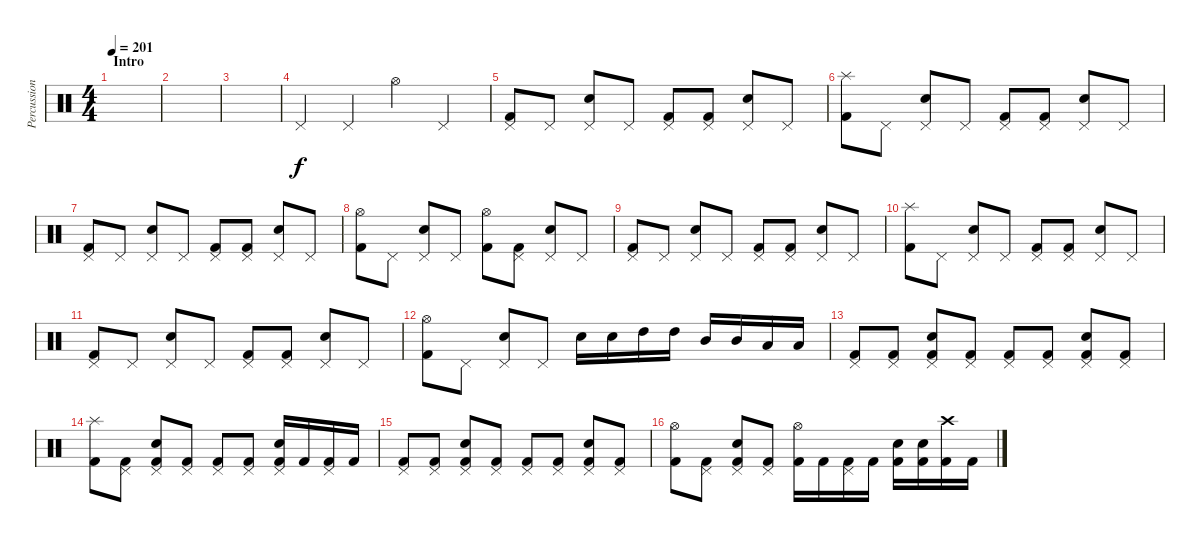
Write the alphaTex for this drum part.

\track ("Percussion" "Percussion") {instrument percussion}
\staff {score}
\articulation defaults
\ts (4 4)
\section ("" "Intro")
\tempo 201
\clef neutral
\ks c
|
|
|
"Pedal Hi-Hat (hit)".4 "Pedal Hi-Hat (hit)".4 "Hi-Hat (open)".4 "Pedal Hi-Hat (hit)".4 |
("Pedal Hi-Hat (hit)" "Kick (hit) 2").8 "Pedal Hi-Hat (hit)".8 ("Pedal Hi-Hat (hit)" "Snare (hit) 2").8 "Pedal Hi-Hat (hit)".8 ("Pedal Hi-Hat (hit)" "Kick (hit) 2").8 ("Pedal Hi-Hat (hit)" "Kick (hit) 2").8 ("Pedal Hi-Hat (hit)" "Snare (hit) 2").8 "Pedal Hi-Hat (hit)".8 |
("Splash (hit)" "Kick (hit) 2").8 "Pedal Hi-Hat (hit)".8 ("Pedal Hi-Hat (hit)" "Snare (hit) 2").8 "Pedal Hi-Hat (hit)".8 ("Pedal Hi-Hat (hit)" "Kick (hit) 2").8 ("Pedal Hi-Hat (hit)" "Kick (hit) 2").8 ("Pedal Hi-Hat (hit)" "Snare (hit) 2").8 "Pedal Hi-Hat (hit)".8 |
("Pedal Hi-Hat (hit)" "Kick (hit) 2").8 "Pedal Hi-Hat (hit)".8 ("Pedal Hi-Hat (hit)" "Snare (hit) 2").8 "Pedal Hi-Hat (hit)".8 ("Pedal Hi-Hat (hit)" "Kick (hit) 2").8 ("Pedal Hi-Hat (hit)" "Kick (hit) 2").8 ("Pedal Hi-Hat (hit)" "Snare (hit) 2").8 "Pedal Hi-Hat (hit)".8 |
("Hi-Hat (open)" "Kick (hit) 2").8 "Pedal Hi-Hat (hit)".8 ("Pedal Hi-Hat (hit)" "Snare (hit) 2").8 "Pedal Hi-Hat (hit)".8 ("Hi-Hat (open)" "Kick (hit) 2").8 ("Pedal Hi-Hat (hit)" "Kick (hit) 2").8 ("Pedal Hi-Hat (hit)" "Snare (hit) 2").8 "Pedal Hi-Hat (hit)".8 |
("Pedal Hi-Hat (hit)" "Kick (hit) 2").8 "Pedal Hi-Hat (hit)".8 ("Pedal Hi-Hat (hit)" "Snare (hit) 2").8 "Pedal Hi-Hat (hit)".8 ("Pedal Hi-Hat (hit)" "Kick (hit) 2").8 ("Pedal Hi-Hat (hit)" "Kick (hit) 2").8 ("Pedal Hi-Hat (hit)" "Snare (hit) 2").8 "Pedal Hi-Hat (hit)".8 |
("Splash (hit)" "Kick (hit) 2").8 "Pedal Hi-Hat (hit)".8 ("Pedal Hi-Hat (hit)" "Snare (hit) 2").8 "Pedal Hi-Hat (hit)".8 ("Pedal Hi-Hat (hit)" "Kick (hit) 2").8 ("Pedal Hi-Hat (hit)" "Kick (hit) 2").8 ("Pedal Hi-Hat (hit)" "Snare (hit) 2").8 "Pedal Hi-Hat (hit)".8 |
("Pedal Hi-Hat (hit)" "Kick (hit) 2").8 "Pedal Hi-Hat (hit)".8 ("Pedal Hi-Hat (hit)" "Snare (hit) 2").8 "Pedal Hi-Hat (hit)".8 ("Pedal Hi-Hat (hit)" "Kick (hit) 2").8 ("Pedal Hi-Hat (hit)" "Kick (hit) 2").8 ("Pedal Hi-Hat (hit)" "Snare (hit) 2").8 "Pedal Hi-Hat (hit)".8 |
("Hi-Hat (open)" "Kick (hit) 2").8 "Pedal Hi-Hat (hit)".8 ("Pedal Hi-Hat (hit)" "Snare (hit) 2").8 "Pedal Hi-Hat (hit)".8 "Snare (hit) 2".16 "Snare (hit) 2".16 "High Tom (hit)".16 "High Tom (hit)".16 "Mid Tom (hit)".16 "Mid Tom (hit)".16 "Low Tom (hit)".16 "Low Tom (hit)".16 |
("Pedal Hi-Hat (hit)" "Kick (hit) 2").8 ("Pedal Hi-Hat (hit)" "Kick (hit) 2").8 ("Pedal Hi-Hat (hit)" "Snare (hit) 2" "Kick (hit) 2").8 ("Pedal Hi-Hat (hit)" "Kick (hit) 2").8 ("Pedal Hi-Hat (hit)" "Kick (hit) 2").8 ("Pedal Hi-Hat (hit)" "Kick (hit) 2").8 ("Pedal Hi-Hat (hit)" "Snare (hit) 2" "Kick (hit) 2").8 ("Pedal Hi-Hat (hit)" "Kick (hit) 2").8 |
("Splash (hit)" "Kick (hit) 2").8 ("Pedal Hi-Hat (hit)" "Kick (hit) 2").8 ("Pedal Hi-Hat (hit)" "Snare (hit) 2" "Kick (hit) 2").8 ("Pedal Hi-Hat (hit)" "Kick (hit) 2").8 ("Pedal Hi-Hat (hit)" "Kick (hit) 2").8 ("Pedal Hi-Hat (hit)" "Kick (hit) 2").8 ("Pedal Hi-Hat (hit)" "Snare (hit) 2" "Kick (hit) 2").16 "Kick (hit) 2".16 ("Pedal Hi-Hat (hit)" "Kick (hit) 2").16 "Kick (hit) 2".16 |
("Pedal Hi-Hat (hit)" "Kick (hit) 2").8 ("Pedal Hi-Hat (hit)" "Kick (hit) 2").8 ("Pedal Hi-Hat (hit)" "Snare (hit) 2" "Kick (hit) 2").8 ("Pedal Hi-Hat (hit)" "Kick (hit) 2").8 ("Pedal Hi-Hat (hit)" "Kick (hit) 2").8 ("Pedal Hi-Hat (hit)" "Kick (hit) 2").8 ("Pedal Hi-Hat (hit)" "Snare (hit) 2" "Kick (hit) 2").8 ("Pedal Hi-Hat (hit)" "Kick (hit) 2").8 |
("Hi-Hat (open)" "Kick (hit) 2").8 ("Pedal Hi-Hat (hit)" "Kick (hit) 2").8 ("Pedal Hi-Hat (hit)" "Snare (hit) 2" "Kick (hit) 2").8 ("Pedal Hi-Hat (hit)" "Kick (hit) 2").8 ("Hi-Hat (open)" "Kick (hit) 2").16 "Kick (hit) 2".16 ("Pedal Hi-Hat (hit)" "Kick (hit) 2").16 "Kick (hit) 2".16 ("Snare (hit) 2" "Kick (hit) 2").16 ("Snare (hit) 2" "Kick (hit) 2").16 ("Crash high (hit)" "Kick (hit) 2").16 "Kick (hit) 2".16
